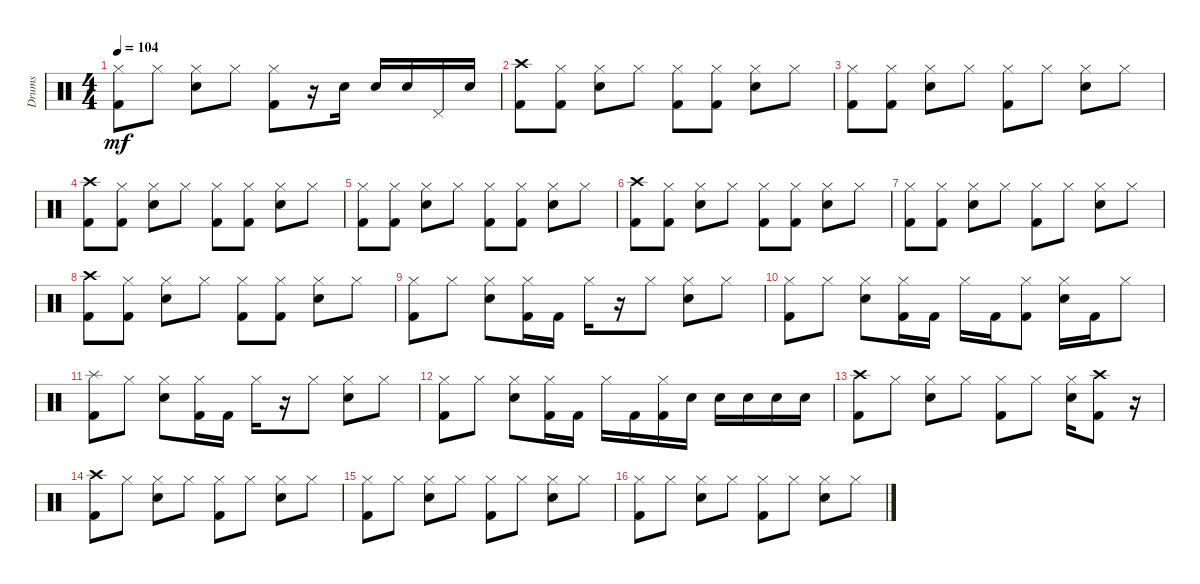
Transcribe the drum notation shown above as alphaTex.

\track ("Drums" "Drums") {instrument percussion}
\staff {score}
\articulation defaults
\ts (4 4)
\tempo 104
\clef neutral
\ks c
("Hi-Hat (closed)" "Kick (hit) 2").8{dy mf} "Hi-Hat (closed)".8 ("Hi-Hat (closed)" "Electric Snare (hit)").8 "Hi-Hat (closed)".8 ("Hi-Hat (closed)" "Kick (hit) 2").8 r.16 "Electric Snare (hit)".16 "Electric Snare (hit)".16 "Electric Snare (hit)".16 "Pedal Hi-Hat (hit)".16 "Electric Snare (hit)".16 |
("Crash high (hit)" "Kick (hit) 2").8 ("Hi-Hat (closed)" "Kick (hit) 2").8 ("Hi-Hat (closed)" "Electric Snare (hit)").8 "Hi-Hat (closed)".8 ("Hi-Hat (closed)" "Kick (hit) 2").8 ("Hi-Hat (closed)" "Kick (hit) 2").8 ("Hi-Hat (closed)" "Electric Snare (hit)").8 "Hi-Hat (closed)".8 |
("Hi-Hat (closed)" "Kick (hit) 2").8 ("Hi-Hat (closed)" "Kick (hit) 2").8 ("Hi-Hat (closed)" "Electric Snare (hit)").8 "Hi-Hat (closed)".8 ("Hi-Hat (closed)" "Kick (hit) 2").8 "Hi-Hat (closed)".8 ("Hi-Hat (closed)" "Electric Snare (hit)").8 "Hi-Hat (closed)".8 |
("Crash high (hit)" "Kick (hit) 2").8 ("Hi-Hat (closed)" "Kick (hit) 2").8 ("Hi-Hat (closed)" "Electric Snare (hit)").8 "Hi-Hat (closed)".8 ("Hi-Hat (closed)" "Kick (hit) 2").8 ("Hi-Hat (closed)" "Kick (hit) 2").8 ("Hi-Hat (closed)" "Electric Snare (hit)").8 "Hi-Hat (closed)".8 |
("Hi-Hat (closed)" "Kick (hit) 2").8 ("Hi-Hat (closed)" "Kick (hit) 2").8 ("Hi-Hat (closed)" "Electric Snare (hit)").8 "Hi-Hat (closed)".8 ("Hi-Hat (closed)" "Kick (hit) 2").8 ("Hi-Hat (closed)" "Kick (hit) 2").8 ("Hi-Hat (closed)" "Electric Snare (hit)").8 "Hi-Hat (closed)".8 |
("Crash high (hit)" "Kick (hit) 2").8 ("Hi-Hat (closed)" "Kick (hit) 2").8 ("Hi-Hat (closed)" "Electric Snare (hit)").8 "Hi-Hat (closed)".8 ("Hi-Hat (closed)" "Kick (hit) 2").8 ("Hi-Hat (closed)" "Kick (hit) 2").8 ("Hi-Hat (closed)" "Electric Snare (hit)").8 "Hi-Hat (closed)".8 |
("Hi-Hat (closed)" "Kick (hit) 2").8 ("Hi-Hat (closed)" "Kick (hit) 2").8 ("Hi-Hat (closed)" "Electric Snare (hit)").8 "Hi-Hat (closed)".8 ("Hi-Hat (closed)" "Kick (hit) 2").8 "Hi-Hat (closed)".8 ("Hi-Hat (closed)" "Electric Snare (hit)").8 "Hi-Hat (closed)".8 |
("Crash high (hit)" "Kick (hit) 2").8 ("Hi-Hat (closed)" "Kick (hit) 2").8 ("Hi-Hat (closed)" "Electric Snare (hit)").8 "Hi-Hat (closed)".8 ("Hi-Hat (closed)" "Kick (hit) 2").8 ("Hi-Hat (closed)" "Kick (hit) 2").8 ("Hi-Hat (closed)" "Electric Snare (hit)").8 "Hi-Hat (closed)".8 |
("Hi-Hat (closed)" "Kick (hit) 2").8 "Hi-Hat (closed)".8 ("Hi-Hat (closed)" "Electric Snare (hit)").8 ("Hi-Hat (closed)" "Kick (hit) 2").16 "Kick (hit) 2".16 "Hi-Hat (closed)".16 r.16 "Hi-Hat (closed)".8 ("Hi-Hat (closed)" "Electric Snare (hit)").8 "Hi-Hat (closed)".8 |
("Hi-Hat (closed)" "Kick (hit) 2").8 "Hi-Hat (closed)".8 ("Hi-Hat (closed)" "Electric Snare (hit)").8 ("Hi-Hat (closed)" "Kick (hit) 2").16 "Kick (hit) 2".16 "Hi-Hat (closed)".16 "Kick (hit) 2".16 ("Hi-Hat (closed)" "Kick (hit) 2").8 ("Hi-Hat (closed)" "Electric Snare (hit)").16 "Kick (hit) 2".16 "Hi-Hat (closed)".8 |
("Splash (hit)" "Kick (hit) 2").8 "Hi-Hat (closed)".8 ("Hi-Hat (closed)" "Electric Snare (hit)").8 ("Hi-Hat (closed)" "Kick (hit) 2").16 "Kick (hit) 2".16 "Hi-Hat (closed)".16 r.16 "Hi-Hat (closed)".8 ("Hi-Hat (closed)" "Electric Snare (hit)").8 "Hi-Hat (closed)".8 |
("Hi-Hat (closed)" "Kick (hit) 2").8 "Hi-Hat (closed)".8 ("Hi-Hat (closed)" "Electric Snare (hit)").8 ("Hi-Hat (closed)" "Kick (hit) 2").16 "Kick (hit) 2".16 "Hi-Hat (closed)".16 "Kick (hit) 2".16 ("Hi-Hat (closed)" "Kick (hit) 2").16 "Electric Snare (hit)".16 "Electric Snare (hit)".16 "Electric Snare (hit)".16 "Electric Snare (hit)".16 "Electric Snare (hit)".16 |
("Crash high (hit)" "Kick (hit) 2").8 "Hi-Hat (closed)".8 ("Hi-Hat (closed)" "Electric Snare (hit)").8 "Hi-Hat (closed)".8 ("Hi-Hat (closed)" "Kick (hit) 2").8 "Hi-Hat (closed)".8 ("Hi-Hat (closed)" "Electric Snare (hit)").16 ("Crash high (hit)" "Kick (hit) 2").8 r.16 |
("Crash high (hit)" "Kick (hit) 2").8 "Hi-Hat (closed)".8 ("Hi-Hat (closed)" "Electric Snare (hit)").8 "Hi-Hat (closed)".8 ("Hi-Hat (closed)" "Kick (hit) 2").8 "Hi-Hat (closed)".8 ("Hi-Hat (closed)" "Electric Snare (hit)").8 "Hi-Hat (closed)".8 |
("Hi-Hat (closed)" "Kick (hit) 2").8 "Hi-Hat (closed)".8 ("Hi-Hat (closed)" "Electric Snare (hit)").8 "Hi-Hat (closed)".8 ("Hi-Hat (closed)" "Kick (hit) 2").8 "Hi-Hat (closed)".8 ("Hi-Hat (closed)" "Electric Snare (hit)").8 "Hi-Hat (closed)".8 |
("Hi-Hat (closed)" "Kick (hit) 2").8 "Hi-Hat (closed)".8 ("Hi-Hat (closed)" "Electric Snare (hit)").8 "Hi-Hat (closed)".8 ("Hi-Hat (closed)" "Kick (hit) 2").8 "Hi-Hat (closed)".8 ("Hi-Hat (closed)" "Electric Snare (hit)").8 "Hi-Hat (closed)".8
